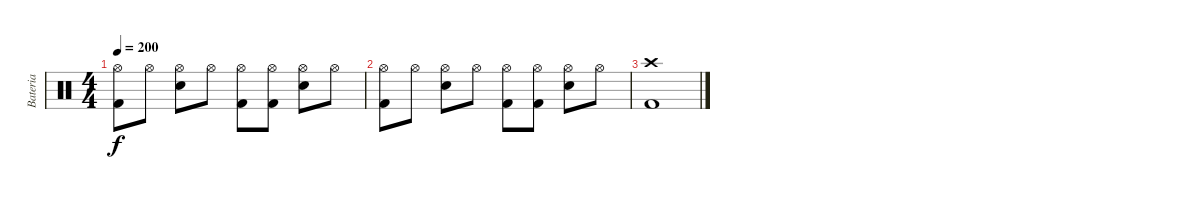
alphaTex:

\track ("Bateria" "Bateria") {instrument percussion}
\staff {score}
\articulation defaults
\ts (4 4)
\tempo 200
\clef neutral
\ks c
("Hi-Hat (open)" "Kick (hit) 2").8{dy f} "Hi-Hat (open)".8 ("Hi-Hat (open)" "Snare (hit) 2").8 "Hi-Hat (open)".8 ("Hi-Hat (open)" "Kick (hit) 2").8 ("Hi-Hat (open)" "Kick (hit) 2").8 ("Hi-Hat (open)" "Snare (hit) 2").8 "Hi-Hat (open)".8 |
("Hi-Hat (open)" "Kick (hit) 2").8 "Hi-Hat (open)".8 ("Hi-Hat (open)" "Snare (hit) 2").8 "Hi-Hat (open)".8 ("Hi-Hat (open)" "Kick (hit) 2").8 ("Hi-Hat (open)" "Kick (hit) 2").8 ("Hi-Hat (open)" "Snare (hit) 2").8 "Hi-Hat (open)".8 |
("Crash high (hit)" "Kick (hit) 2").1
